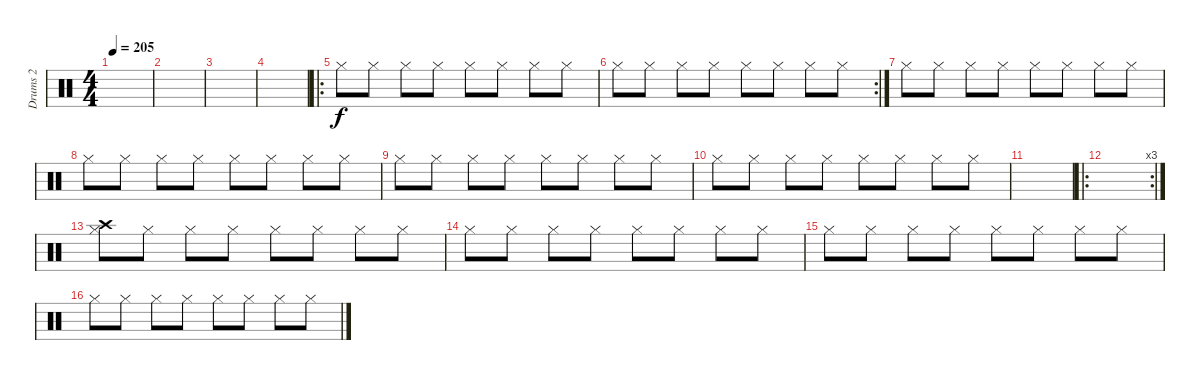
\track ("Drums 2" "Drums 2") {instrument percussion}
\staff {score}
\articulation defaults
\ts (4 4)
\tempo 205
\clef neutral
\ks c
|
|
|
|
\ro "Hi-Hat (closed)".8 "Hi-Hat (closed)".8 "Hi-Hat (closed)".8 "Hi-Hat (closed)".8 "Hi-Hat (closed)".8 "Hi-Hat (closed)".8 "Hi-Hat (closed)".8 "Hi-Hat (closed)".8
|
\rc 2 "Hi-Hat (closed)".8 "Hi-Hat (closed)".8 "Hi-Hat (closed)".8 "Hi-Hat (closed)".8 "Hi-Hat (closed)".8 "Hi-Hat (closed)".8 "Hi-Hat (closed)".8 "Hi-Hat (closed)".8
|
"Hi-Hat (closed)".8 "Hi-Hat (closed)".8 "Hi-Hat (closed)".8 "Hi-Hat (closed)".8 "Hi-Hat (closed)".8 "Hi-Hat (closed)".8 "Hi-Hat (closed)".8 "Hi-Hat (closed)".8 |
"Hi-Hat (closed)".8 "Hi-Hat (closed)".8 "Hi-Hat (closed)".8 "Hi-Hat (closed)".8 "Hi-Hat (closed)".8 "Hi-Hat (closed)".8 "Hi-Hat (closed)".8 "Hi-Hat (closed)".8 |
"Hi-Hat (closed)".8 "Hi-Hat (closed)".8 "Hi-Hat (closed)".8 "Hi-Hat (closed)".8 "Hi-Hat (closed)".8 "Hi-Hat (closed)".8 "Hi-Hat (closed)".8 "Hi-Hat (closed)".8 |
"Hi-Hat (closed)".8 "Hi-Hat (closed)".8 "Hi-Hat (closed)".8 "Hi-Hat (closed)".8 "Hi-Hat (closed)".8 "Hi-Hat (closed)".8 "Hi-Hat (closed)".8 "Hi-Hat (closed)".8 |
|
\ro
\rc 3
|
("Crash high (hit)" "Hi-Hat (closed)").8 "Hi-Hat (closed)".8 "Hi-Hat (closed)".8 "Hi-Hat (closed)".8 "Hi-Hat (closed)".8 "Hi-Hat (closed)".8 "Hi-Hat (closed)".8 "Hi-Hat (closed)".8 |
"Hi-Hat (closed)".8 "Hi-Hat (closed)".8 "Hi-Hat (closed)".8 "Hi-Hat (closed)".8 "Hi-Hat (closed)".8 "Hi-Hat (closed)".8 "Hi-Hat (closed)".8 "Hi-Hat (closed)".8 |
"Hi-Hat (closed)".8 "Hi-Hat (closed)".8 "Hi-Hat (closed)".8 "Hi-Hat (closed)".8 "Hi-Hat (closed)".8 "Hi-Hat (closed)".8 "Hi-Hat (closed)".8 "Hi-Hat (closed)".8 |
"Hi-Hat (closed)".8 "Hi-Hat (closed)".8 "Hi-Hat (closed)".8 "Hi-Hat (closed)".8 "Hi-Hat (closed)".8 "Hi-Hat (closed)".8 "Hi-Hat (closed)".8 "Hi-Hat (closed)".8
